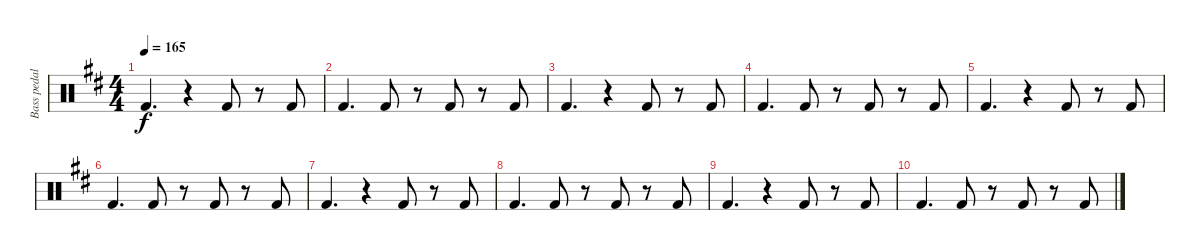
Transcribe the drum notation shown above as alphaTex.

\track ("Bass pedal" "Bass pedal") {instrument percussion}
\staff {score}
\articulation defaults
\ts (4 4)
\tempo 165
\clef neutral
\ks d "Kick (hit) 2".4{d dy f}
r.4 "Kick (hit) 2".8 r.8 "Kick (hit) 2".8 |
"Kick (hit) 2".4{d} "Kick (hit) 2".8 r.8 "Kick (hit) 2".8 r.8 "Kick (hit) 2".8 |
"Kick (hit) 2".4{d} r.4 "Kick (hit) 2".8 r.8 "Kick (hit) 2".8 |
"Kick (hit) 2".4{d} "Kick (hit) 2".8 r.8 "Kick (hit) 2".8 r.8 "Kick (hit) 2".8 |
"Kick (hit) 2".4{d} r.4 "Kick (hit) 2".8 r.8 "Kick (hit) 2".8 |
"Kick (hit) 2".4{d} "Kick (hit) 2".8 r.8 "Kick (hit) 2".8 r.8 "Kick (hit) 2".8 |
"Kick (hit) 2".4{d} r.4 "Kick (hit) 2".8 r.8 "Kick (hit) 2".8 |
"Kick (hit) 2".4{d} "Kick (hit) 2".8 r.8 "Kick (hit) 2".8 r.8 "Kick (hit) 2".8 |
"Kick (hit) 2".4{d} r.4 "Kick (hit) 2".8 r.8 "Kick (hit) 2".8 |
"Kick (hit) 2".4{d} "Kick (hit) 2".8 r.8 "Kick (hit) 2".8 r.8 "Kick (hit) 2".8
